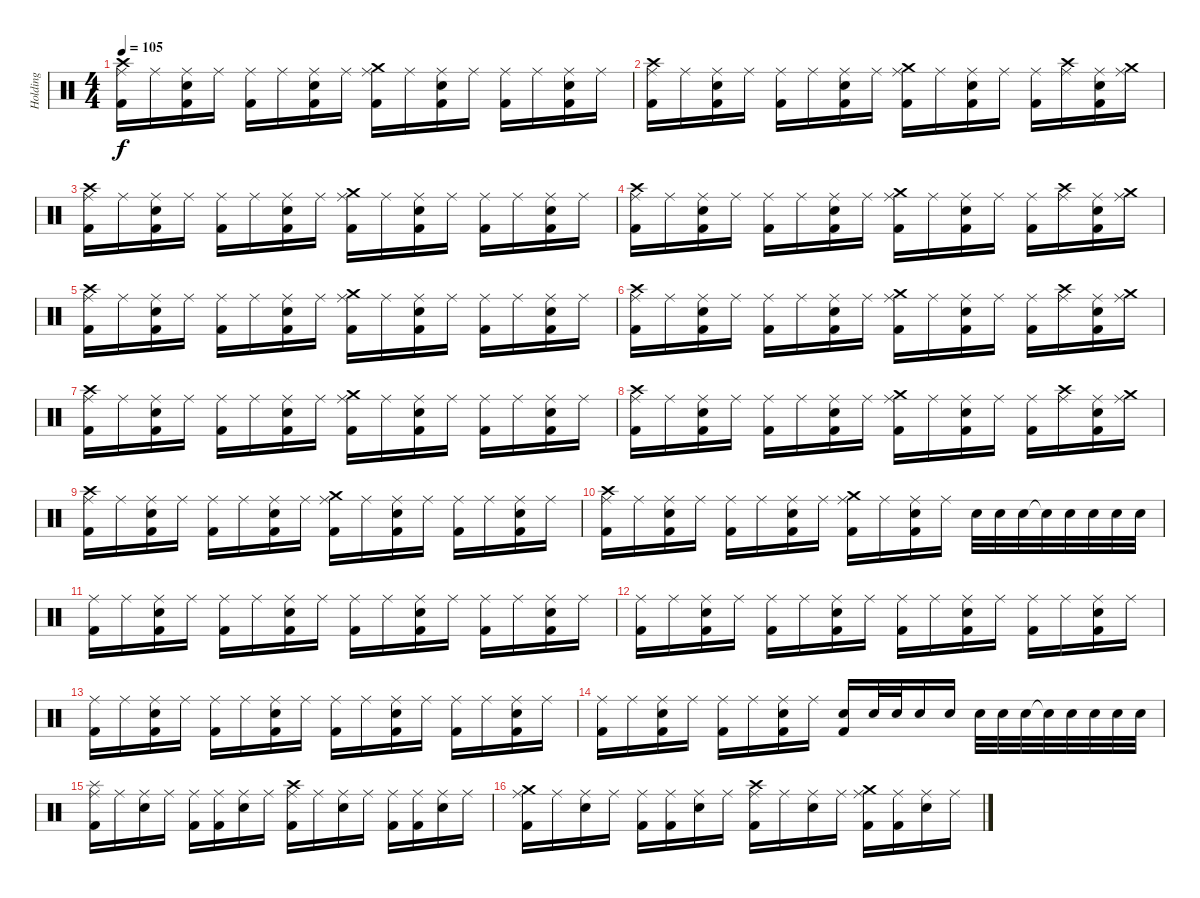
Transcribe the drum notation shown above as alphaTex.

\track ("Holding" "Holding") {instrument percussion}
\staff {score}
\articulation defaults
\ts (4 4)
\tempo 105
\clef neutral
\ks c
("Crash high (hit)" "Ride (middle)" "Kick (hit) 2").16{dy f} "Ride (middle)".16 ("Ride (middle)" "Electric Snare (hit)" "Kick (hit) 2").16 "Ride (middle)".16 ("Ride (middle)" "Kick (hit) 2").16 "Ride (middle)".16 ("Ride (middle)" "Electric Snare (hit)" "Kick (hit) 2").16 "Ride (middle)".16 ("Crash medium (hit)" "Ride (middle)" "Kick (hit) 2").16 "Ride (middle)".16 ("Ride (middle)" "Electric Snare (hit)" "Kick (hit) 2").16 "Ride (middle)".16 ("Ride (middle)" "Kick (hit) 2").16 "Ride (middle)".16 ("Ride (middle)" "Electric Snare (hit)" "Kick (hit) 2").16 "Ride (middle)".16 |
("Crash high (hit)" "Ride (middle)" "Kick (hit) 2").16 "Ride (middle)".16 ("Ride (middle)" "Electric Snare (hit)" "Kick (hit) 2").16 "Ride (middle)".16 ("Ride (middle)" "Kick (hit) 2").16 "Ride (middle)".16 ("Ride (middle)" "Electric Snare (hit)" "Kick (hit) 2").16 "Ride (middle)".16 ("Crash medium (hit)" "Ride (middle)" "Kick (hit) 2").16 "Ride (middle)".16 ("Ride (middle)" "Electric Snare (hit)" "Kick (hit) 2").16 "Ride (middle)".16 ("Ride (middle)" "Kick (hit) 2").16 ("Crash high (hit)" "Ride (middle)").16 ("Ride (middle)" "Electric Snare (hit)" "Kick (hit) 2").16 ("Crash medium (hit)" "Ride (middle)").16 |
("Crash high (hit)" "Ride (middle)" "Kick (hit) 2").16 "Ride (middle)".16 ("Ride (middle)" "Electric Snare (hit)" "Kick (hit) 2").16 "Ride (middle)".16 ("Ride (middle)" "Kick (hit) 2").16 "Ride (middle)".16 ("Ride (middle)" "Electric Snare (hit)" "Kick (hit) 2").16 "Ride (middle)".16 ("Crash medium (hit)" "Ride (middle)" "Kick (hit) 2").16 "Ride (middle)".16 ("Ride (middle)" "Electric Snare (hit)" "Kick (hit) 2").16 "Ride (middle)".16 ("Ride (middle)" "Kick (hit) 2").16 "Ride (middle)".16 ("Ride (middle)" "Electric Snare (hit)" "Kick (hit) 2").16 "Ride (middle)".16 |
("Crash high (hit)" "Ride (middle)" "Kick (hit) 2").16 "Ride (middle)".16 ("Ride (middle)" "Electric Snare (hit)" "Kick (hit) 2").16 "Ride (middle)".16 ("Ride (middle)" "Kick (hit) 2").16 "Ride (middle)".16 ("Ride (middle)" "Electric Snare (hit)" "Kick (hit) 2").16 "Ride (middle)".16 ("Crash medium (hit)" "Ride (middle)" "Kick (hit) 2").16 "Ride (middle)".16 ("Ride (middle)" "Electric Snare (hit)" "Kick (hit) 2").16 "Ride (middle)".16 ("Ride (middle)" "Kick (hit) 2").16 ("Crash high (hit)" "Ride (middle)").16 ("Ride (middle)" "Electric Snare (hit)" "Kick (hit) 2").16 ("Crash medium (hit)" "Ride (middle)").16 |
("Crash high (hit)" "Ride (middle)" "Kick (hit) 2").16 "Ride (middle)".16 ("Ride (middle)" "Electric Snare (hit)" "Kick (hit) 2").16 "Ride (middle)".16 ("Ride (middle)" "Kick (hit) 2").16 "Ride (middle)".16 ("Ride (middle)" "Electric Snare (hit)" "Kick (hit) 2").16 "Ride (middle)".16 ("Crash medium (hit)" "Ride (middle)" "Kick (hit) 2").16 "Ride (middle)".16 ("Ride (middle)" "Electric Snare (hit)" "Kick (hit) 2").16 "Ride (middle)".16 ("Ride (middle)" "Kick (hit) 2").16 "Ride (middle)".16 ("Ride (middle)" "Electric Snare (hit)" "Kick (hit) 2").16 "Ride (middle)".16 |
("Crash high (hit)" "Ride (middle)" "Kick (hit) 2").16 "Ride (middle)".16 ("Ride (middle)" "Electric Snare (hit)" "Kick (hit) 2").16 "Ride (middle)".16 ("Ride (middle)" "Kick (hit) 2").16 "Ride (middle)".16 ("Ride (middle)" "Electric Snare (hit)" "Kick (hit) 2").16 "Ride (middle)".16 ("Crash medium (hit)" "Ride (middle)" "Kick (hit) 2").16 "Ride (middle)".16 ("Ride (middle)" "Electric Snare (hit)" "Kick (hit) 2").16 "Ride (middle)".16 ("Ride (middle)" "Kick (hit) 2").16 ("Crash high (hit)" "Ride (middle)").16 ("Ride (middle)" "Electric Snare (hit)" "Kick (hit) 2").16 ("Crash medium (hit)" "Ride (middle)").16 |
("Crash high (hit)" "Ride (middle)" "Kick (hit) 2").16 "Ride (middle)".16 ("Ride (middle)" "Electric Snare (hit)" "Kick (hit) 2").16 "Ride (middle)".16 ("Ride (middle)" "Kick (hit) 2").16 "Ride (middle)".16 ("Ride (middle)" "Electric Snare (hit)" "Kick (hit) 2").16 "Ride (middle)".16 ("Crash medium (hit)" "Ride (middle)" "Kick (hit) 2").16 "Ride (middle)".16 ("Ride (middle)" "Electric Snare (hit)" "Kick (hit) 2").16 "Ride (middle)".16 ("Ride (middle)" "Kick (hit) 2").16 "Ride (middle)".16 ("Ride (middle)" "Electric Snare (hit)" "Kick (hit) 2").16 "Ride (middle)".16 |
("Crash high (hit)" "Ride (middle)" "Kick (hit) 2").16 "Ride (middle)".16 ("Ride (middle)" "Electric Snare (hit)" "Kick (hit) 2").16 "Ride (middle)".16 ("Ride (middle)" "Kick (hit) 2").16 "Ride (middle)".16 ("Ride (middle)" "Electric Snare (hit)" "Kick (hit) 2").16 "Ride (middle)".16 ("Crash medium (hit)" "Ride (middle)" "Kick (hit) 2").16 "Ride (middle)".16 ("Ride (middle)" "Electric Snare (hit)" "Kick (hit) 2").16 "Ride (middle)".16 ("Ride (middle)" "Kick (hit) 2").16 ("Crash high (hit)" "Ride (middle)").16 ("Ride (middle)" "Electric Snare (hit)" "Kick (hit) 2").16 ("Crash medium (hit)" "Ride (middle)").16 |
("Crash high (hit)" "Ride (middle)" "Kick (hit) 2").16 "Ride (middle)".16 ("Ride (middle)" "Electric Snare (hit)" "Kick (hit) 2").16 "Ride (middle)".16 ("Ride (middle)" "Kick (hit) 2").16 "Ride (middle)".16 ("Ride (middle)" "Electric Snare (hit)" "Kick (hit) 2").16 "Ride (middle)".16 ("Crash medium (hit)" "Ride (middle)" "Kick (hit) 2").16 "Ride (middle)".16 ("Ride (middle)" "Electric Snare (hit)" "Kick (hit) 2").16 "Ride (middle)".16 ("Ride (middle)" "Kick (hit) 2").16 "Ride (middle)".16 ("Ride (middle)" "Electric Snare (hit)" "Kick (hit) 2").16 "Ride (middle)".16 |
("Crash high (hit)" "Ride (middle)" "Kick (hit) 2").16 "Ride (middle)".16 ("Ride (middle)" "Electric Snare (hit)" "Kick (hit) 2").16 "Ride (middle)".16 ("Ride (middle)" "Kick (hit) 2").16 "Ride (middle)".16 ("Ride (middle)" "Electric Snare (hit)" "Kick (hit) 2").16 "Ride (middle)".16 ("Crash medium (hit)" "Ride (middle)" "Kick (hit) 2").16 "Ride (middle)".16 ("Ride (middle)" "Electric Snare (hit)" "Kick (hit) 2").16 "Ride (middle)".16 "Electric Snare (hit)".32 "Electric Snare (hit)".32 "Electric Snare (hit)".32 "Electric Snare (hit)"{t}.32 "Electric Snare (hit)".32 "Electric Snare (hit)".32 "Electric Snare (hit)".32 "Electric Snare (hit)".32 |
("Ride (middle)" "Kick (hit) 2").16 "Ride (middle)".16 ("Ride (middle)" "Electric Snare (hit)" "Kick (hit) 2").16 "Ride (middle)".16 ("Ride (middle)" "Kick (hit) 2").16 "Ride (middle)".16 ("Ride (middle)" "Electric Snare (hit)" "Kick (hit) 2").16 "Ride (middle)".16 ("Ride (middle)" "Kick (hit) 2").16 "Ride (middle)".16 ("Ride (middle)" "Electric Snare (hit)" "Kick (hit) 2").16 "Ride (middle)".16 ("Ride (middle)" "Kick (hit) 2").16 "Ride (middle)".16 ("Ride (middle)" "Electric Snare (hit)" "Kick (hit) 2").16 "Ride (middle)".16 |
("Ride (middle)" "Kick (hit) 2").16 "Ride (middle)".16 ("Ride (middle)" "Electric Snare (hit)" "Kick (hit) 2").16 "Ride (middle)".16 ("Ride (middle)" "Kick (hit) 2").16 "Ride (middle)".16 ("Ride (middle)" "Electric Snare (hit)" "Kick (hit) 2").16 "Ride (middle)".16 ("Ride (middle)" "Kick (hit) 2").16 "Ride (middle)".16 ("Ride (middle)" "Electric Snare (hit)" "Kick (hit) 2").16 "Ride (middle)".16 ("Ride (middle)" "Kick (hit) 2").16 "Ride (middle)".16 ("Ride (middle)" "Electric Snare (hit)" "Kick (hit) 2").16 "Ride (middle)".16 |
("Ride (middle)" "Kick (hit) 2").16 "Ride (middle)".16 ("Ride (middle)" "Electric Snare (hit)" "Kick (hit) 2").16 "Ride (middle)".16 ("Ride (middle)" "Kick (hit) 2").16 "Ride (middle)".16 ("Ride (middle)" "Electric Snare (hit)" "Kick (hit) 2").16 "Ride (middle)".16 ("Ride (middle)" "Kick (hit) 2").16 "Ride (middle)".16 ("Ride (middle)" "Electric Snare (hit)" "Kick (hit) 2").16 "Ride (middle)".16 ("Ride (middle)" "Kick (hit) 2").16 "Ride (middle)".16 ("Ride (middle)" "Electric Snare (hit)" "Kick (hit) 2").16 "Ride (middle)".16 |
("Ride (middle)" "Kick (hit) 2").16 "Ride (middle)".16 ("Ride (middle)" "Electric Snare (hit)" "Kick (hit) 2").16 "Ride (middle)".16 ("Ride (middle)" "Kick (hit) 2").16 "Ride (middle)".16 ("Ride (middle)" "Electric Snare (hit)" "Kick (hit) 2").16 "Ride (middle)".16 ("Electric Snare (hit)" "Kick (hit) 2").16 "Electric Snare (hit)".32 "Electric Snare (hit)".32 "Electric Snare (hit)".16 "Electric Snare (hit)".16 "Electric Snare (hit)".32 "Electric Snare (hit)".32 "Electric Snare (hit)".32 "Electric Snare (hit)"{t}.32 "Electric Snare (hit)".32 "Electric Snare (hit)".32 "Electric Snare (hit)".32 "Electric Snare (hit)".32 |
("Splash (hit)" "Ride (middle)" "Kick (hit) 2").16 "Ride (middle)".16 ("Ride (middle)" "Electric Snare (hit)").16 "Ride (middle)".16 ("Ride (middle)" "Kick (hit) 2").16 ("Ride (middle)" "Kick (hit) 2").16 ("Ride (middle)" "Electric Snare (hit)").16 "Ride (middle)".16 ("Crash high (hit)" "Ride (middle)" "Kick (hit) 2").16 "Ride (middle)".16 ("Ride (middle)" "Electric Snare (hit)").16 "Ride (middle)".16 ("Ride (middle)" "Kick (hit) 2").16 ("Ride (middle)" "Kick (hit) 2").16 ("Ride (middle)" "Electric Snare (hit)").16 "Ride (middle)".16 |
("Crash medium (hit)" "Ride (middle)" "Kick (hit) 2").16 "Ride (middle)".16 ("Ride (middle)" "Electric Snare (hit)").16 "Ride (middle)".16 ("Ride (middle)" "Kick (hit) 2").16 ("Ride (middle)" "Kick (hit) 2").16 ("Ride (middle)" "Electric Snare (hit)").16 "Ride (middle)".16 ("Crash high (hit)" "Ride (middle)" "Kick (hit) 2").16 "Ride (middle)".16 ("Ride (middle)" "Electric Snare (hit)").16 "Ride (middle)".16 ("Crash medium (hit)" "Ride (middle)" "Kick (hit) 2").16 ("Ride (middle)" "Kick (hit) 2").16 ("Ride (middle)" "Electric Snare (hit)").16 "Ride (middle)".16
